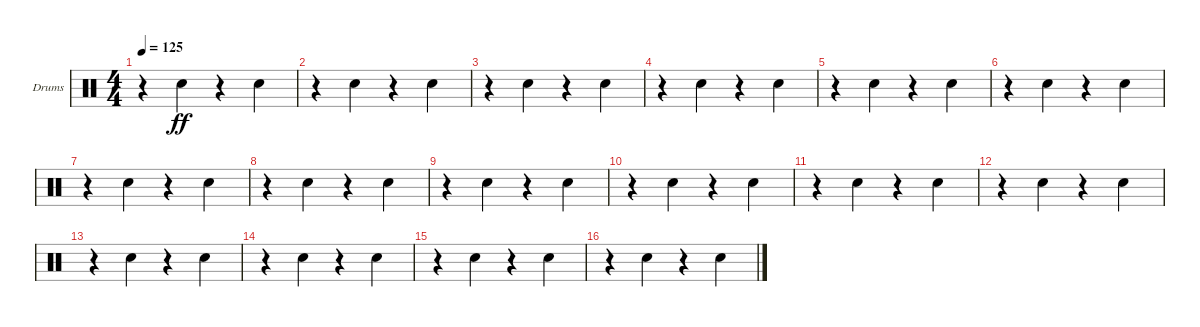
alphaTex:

\defaultSystemsLayout 4
\bracketExtendMode groupsimilarinstruments
\firstSystemTrackNameOrientation horizontal
\otherSystemsTrackNameOrientation horizontal
\track ("Drumkit" "Drums") {instrument percussion}
\staff {score}
\articulation defaults
\ts (4 4)
\tempo 125
\clef neutral
\scale
0.333333
\ks c
r.4{dy ff} "Snare (hit) 2".4 r.4 "Snare (hit) 2".4 |
\scale
0.333333 r.4 "Snare (hit) 2".4 r.4 "Snare (hit) 2".4 |
\scale
0.333333 r.4 "Snare (hit) 2".4 r.4 "Snare (hit) 2".4 |
\scale
0.333333 r.4 "Snare (hit) 2".4 r.4 "Snare (hit) 2".4 |
\scale
0.333333 r.4 "Snare (hit) 2".4 r.4 "Snare (hit) 2".4 |
\scale
0.333333 r.4 "Snare (hit) 2".4 r.4 "Snare (hit) 2".4 |
\scale
0.333333 r.4 "Snare (hit) 2".4 r.4 "Snare (hit) 2".4 |
\scale
0.333333 r.4 "Snare (hit) 2".4 r.4 "Snare (hit) 2".4 |
\scale
0.333333 r.4 "Snare (hit) 2".4 r.4 "Snare (hit) 2".4 |
\scale
0.333333 r.4 "Snare (hit) 2".4 r.4 "Snare (hit) 2".4 |
\scale
0.333333 r.4 "Snare (hit) 2".4 r.4 "Snare (hit) 2".4 |
\scale
0.333333 r.4 "Snare (hit) 2".4 r.4 "Snare (hit) 2".4 |
\scale
0.333333 r.4 "Snare (hit) 2".4 r.4 "Snare (hit) 2".4 |
\scale
0.333333 r.4 "Snare (hit) 2".4 r.4 "Snare (hit) 2".4 |
\scale
0.333333 r.4 "Snare (hit) 2".4 r.4 "Snare (hit) 2".4 |
\scale
0.333333 r.4 "Snare (hit) 2".4 r.4 "Snare (hit) 2".4
